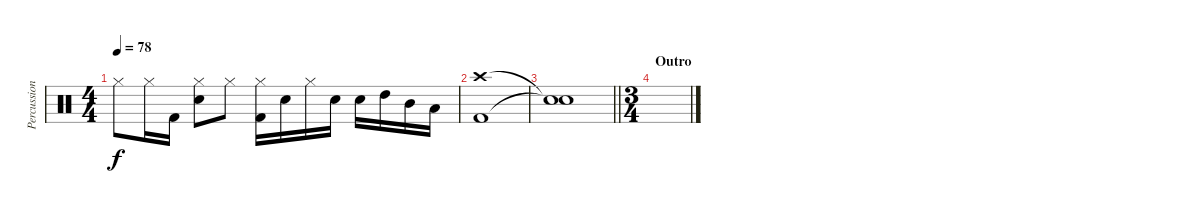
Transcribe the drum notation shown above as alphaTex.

\track ("Percussion" "Percussion") {instrument percussion}
\staff {score}
\articulation defaults
\ts (4 4)
\tempo 78
\clef neutral
\ks c "Hi-Hat (closed)".8{dy f} "Hi-Hat (closed)".16 "Kick (hit) 2".16
("Hi-Hat (closed)" "Electric Snare (hit)").8 "Hi-Hat (closed)".8 ("Hi-Hat (closed)" "Kick (hit) 2").16 "Electric Snare (hit)".16 "Hi-Hat (closed)".16 "Electric Snare (hit)".16 "Electric Snare (hit)".16 "High Tom (hit)".16 "Mid Tom (hit)".16 "Low Tom (hit)".16 |
("Crash high (hit)" "Kick (hit) 2").1 |
\barLineRight lightlight
("Snare (hit)"{t} "Snare (hit)"{t}).1 |
\ts (3 4)
\section ("" "Outro")
